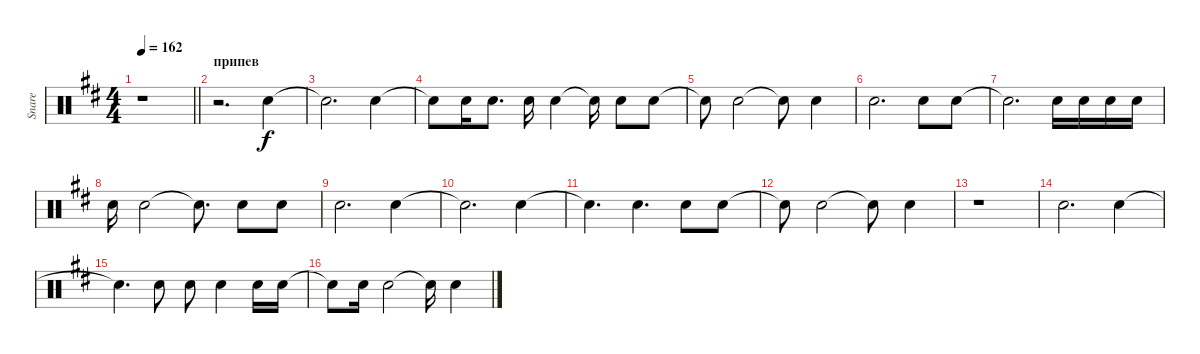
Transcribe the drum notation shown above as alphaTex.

\track ("Snare" "Snare") {instrument percussion}
\staff {score}
\articulation defaults
\ts (4 4)
\tempo 162
\clef neutral
\barLineRight lightlight
\ks bminor
r.1{dy f} |
\section ("" "припев")
r.2{d} "Electric Snare (hit)".4 |
"Electric Snare (hit)"{t}.2{d} "Electric Snare (hit)".4 |
"Electric Snare (hit)"{t}.8 "Electric Snare (hit)".16 "Electric Snare (hit)".8{d} "Electric Snare (hit)".16 "Electric Snare (hit)".4 "Electric Snare (hit)"{t}.16 "Electric Snare (hit)".8 "Electric Snare (hit)".8 |
"Electric Snare (hit)"{t}.8 "Electric Snare (hit)".2 "Electric Snare (hit)"{t}.8 "Electric Snare (hit)".4 |
"Electric Snare (hit)".2{d} "Electric Snare (hit)".8 "Electric Snare (hit)".8 |
"Electric Snare (hit)"{t}.2{d} "Electric Snare (hit)".16 "Electric Snare (hit)".16 "Electric Snare (hit)".16 "Electric Snare (hit)".16 |
"Electric Snare (hit)".16 "Electric Snare (hit)".2 "Electric Snare (hit)"{t}.8{d} "Electric Snare (hit)".8 "Electric Snare (hit)".8 |
"Electric Snare (hit)".2{d} "Electric Snare (hit)".4 |
"Electric Snare (hit)"{t}.2{d} "Electric Snare (hit)".4 |
"Electric Snare (hit)"{t}.4{d} "Electric Snare (hit)".4{d} "Electric Snare (hit)".8 "Electric Snare (hit)".8 |
"Electric Snare (hit)"{t}.8 "Electric Snare (hit)".2 "Electric Snare (hit)"{t}.8 "Electric Snare (hit)".4 |
r.1 |
"Electric Snare (hit)".2{d} "Electric Snare (hit)".4 |
"Electric Snare (hit)"{t}.4{d} "Electric Snare (hit)".8 "Electric Snare (hit)".8 "Electric Snare (hit)".4 "Electric Snare (hit)".16 "Electric Snare (hit)".16 |
"Electric Snare (hit)"{t}.8 "Electric Snare (hit)".16 "Electric Snare (hit)".2 "Electric Snare (hit)"{t}.16 "Electric Snare (hit)".4
